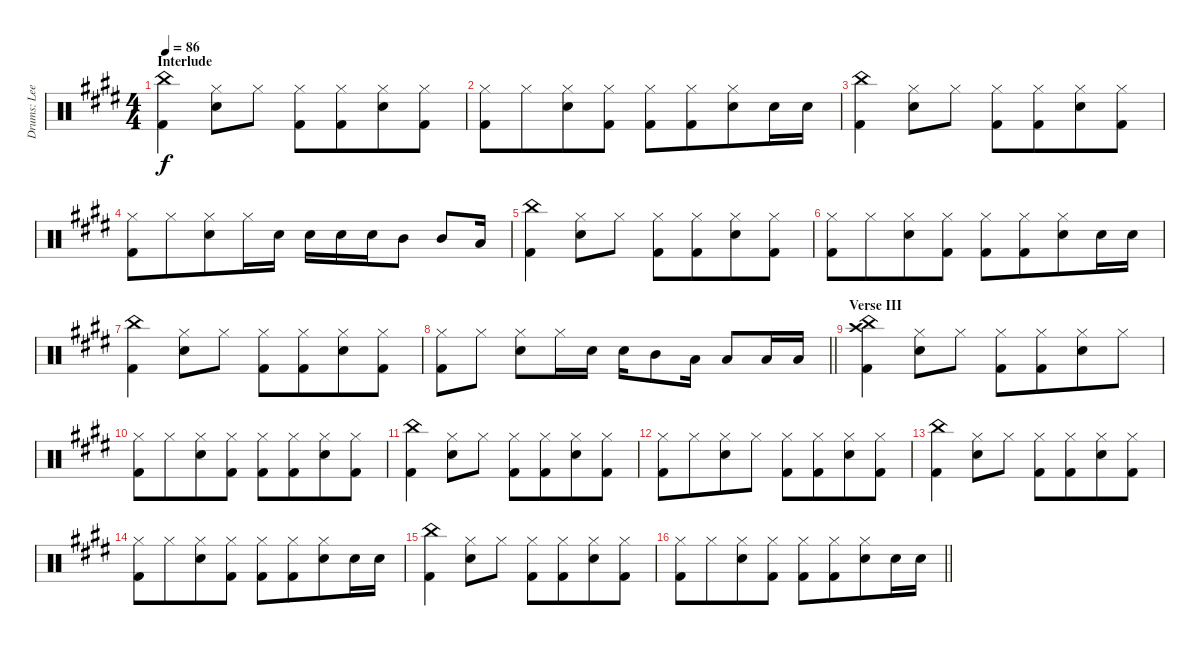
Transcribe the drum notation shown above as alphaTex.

\track ("Drums: Lee" "Drums: Lee") {instrument percussion}
\staff {score}
\articulation defaults
\ts (4 4)
\section ("" "Interlude")
\tempo 86
\clef neutral
\ks c#minor
("China (hit)" "Kick (hit) 2").4{dy f} ("Hi-Hat (closed)" "Snare (hit) 2").8 "Hi-Hat (closed)".8 ("Hi-Hat (closed)" "Kick (hit) 2").8 ("Hi-Hat (closed)" "Kick (hit) 2").8{beam merge} ("Hi-Hat (closed)" "Snare (hit) 2").8 ("Hi-Hat (closed)" "Kick (hit) 2").8 |
("Hi-Hat (closed)" "Kick (hit) 2").8 "Hi-Hat (closed)".8{beam merge} ("Hi-Hat (closed)" "Snare (hit) 2").8 ("Hi-Hat (closed)" "Kick (hit) 2").8 ("Hi-Hat (closed)" "Kick (hit) 2").8 ("Hi-Hat (closed)" "Kick (hit) 2").8{beam merge} ("Hi-Hat (closed)" "Snare (hit) 2").8 "Snare (hit) 2".16 "Snare (hit) 2".16 |
("China (hit)" "Kick (hit) 2").4 ("Hi-Hat (closed)" "Snare (hit) 2").8 "Hi-Hat (closed)".8 ("Hi-Hat (closed)" "Kick (hit) 2").8 ("Hi-Hat (closed)" "Kick (hit) 2").8{beam merge} ("Hi-Hat (closed)" "Snare (hit) 2").8 ("Hi-Hat (closed)" "Kick (hit) 2").8 |
("Hi-Hat (closed)" "Kick (hit) 2").8 "Hi-Hat (closed)".8{beam merge} ("Hi-Hat (closed)" "Snare (hit) 2").8 "Hi-Hat (closed)".16{beam merge} "Snare (hit) 2".16 "Snare (hit) 2".16 "Snare (hit) 2".16 "Snare (hit) 2".16 "Mid Tom (hit)".8 "Mid Tom (hit)".8 "Low Tom (hit)".16 |
("China (hit)" "Kick (hit) 2").4 ("Hi-Hat (closed)" "Snare (hit) 2").8 "Hi-Hat (closed)".8 ("Hi-Hat (closed)" "Kick (hit) 2").8 ("Hi-Hat (closed)" "Kick (hit) 2").8{beam merge} ("Hi-Hat (closed)" "Snare (hit) 2").8 ("Hi-Hat (closed)" "Kick (hit) 2").8 |
("Hi-Hat (closed)" "Kick (hit) 2").8 "Hi-Hat (closed)".8{beam merge} ("Hi-Hat (closed)" "Snare (hit) 2").8 ("Hi-Hat (closed)" "Kick (hit) 2").8 ("Hi-Hat (closed)" "Kick (hit) 2").8 ("Hi-Hat (closed)" "Kick (hit) 2").8{beam merge} ("Hi-Hat (closed)" "Snare (hit) 2").8 "Snare (hit) 2".16 "Snare (hit) 2".16 |
("China (hit)" "Kick (hit) 2").4 ("Hi-Hat (closed)" "Snare (hit) 2").8 "Hi-Hat (closed)".8 ("Hi-Hat (closed)" "Kick (hit) 2").8 ("Hi-Hat (closed)" "Kick (hit) 2").8{beam merge} ("Hi-Hat (closed)" "Snare (hit) 2").8 ("Hi-Hat (closed)" "Kick (hit) 2").8 |
\barLineRight lightlight
("Hi-Hat (closed)" "Kick (hit) 2").8 "Hi-Hat (closed)".8 ("Hi-Hat (closed)" "Snare (hit) 2").8 "Hi-Hat (closed)".16 "Snare (hit) 2".16 "Snare (hit) 2".16 "Mid Tom (hit)".8 "Low Tom (hit)".16 "Low Tom (hit)".8 "Low Tom (hit)".16 "Low Tom (hit)".16 |
\section ("" "Verse III")
("Crash high (hit)" "China (hit)" "Kick (hit) 2").4 ("Hi-Hat (closed)" "Snare (hit) 2").8 "Hi-Hat (closed)".8 ("Hi-Hat (closed)" "Kick (hit) 2").8 ("Hi-Hat (closed)" "Kick (hit) 2").8{beam merge} ("Hi-Hat (closed)" "Snare (hit) 2").8 "Hi-Hat (closed)".8 |
("Hi-Hat (closed)" "Kick (hit) 2").8 "Hi-Hat (closed)".8{beam merge} ("Hi-Hat (closed)" "Snare (hit) 2").8 ("Hi-Hat (closed)" "Kick (hit) 2").8 ("Hi-Hat (closed)" "Kick (hit) 2").8 ("Hi-Hat (closed)" "Kick (hit) 2").8{beam merge} ("Hi-Hat (closed)" "Snare (hit) 2").8 ("Hi-Hat (closed)" "Kick (hit) 2").8 |
("China (hit)" "Kick (hit) 2").4 ("Hi-Hat (closed)" "Snare (hit) 2").8 "Hi-Hat (closed)".8 ("Hi-Hat (closed)" "Kick (hit) 2").8 ("Hi-Hat (closed)" "Kick (hit) 2").8{beam merge} ("Hi-Hat (closed)" "Snare (hit) 2").8 ("Hi-Hat (closed)" "Kick (hit) 2").8 |
("Hi-Hat (closed)" "Kick (hit) 2").8 "Hi-Hat (closed)".8{beam merge} ("Hi-Hat (closed)" "Snare (hit) 2").8 "Hi-Hat (closed)".8 ("Hi-Hat (closed)" "Kick (hit) 2").8 ("Hi-Hat (closed)" "Kick (hit) 2").8{beam merge} ("Hi-Hat (closed)" "Snare (hit) 2").8 ("Hi-Hat (closed)" "Kick (hit) 2").8 |
("China (hit)" "Kick (hit) 2").4 ("Hi-Hat (closed)" "Snare (hit) 2").8 "Hi-Hat (closed)".8 ("Hi-Hat (closed)" "Kick (hit) 2").8 ("Hi-Hat (closed)" "Kick (hit) 2").8{beam merge} ("Hi-Hat (closed)" "Snare (hit) 2").8 ("Hi-Hat (closed)" "Kick (hit) 2").8 |
("Hi-Hat (closed)" "Kick (hit) 2").8 "Hi-Hat (closed)".8{beam merge} ("Hi-Hat (closed)" "Snare (hit) 2").8 ("Hi-Hat (closed)" "Kick (hit) 2").8 ("Hi-Hat (closed)" "Kick (hit) 2").8 ("Hi-Hat (closed)" "Kick (hit) 2").8{beam merge} ("Hi-Hat (closed)" "Snare (hit) 2").8 "Snare (hit) 2".16 "Snare (hit) 2".16 |
("China (hit)" "Kick (hit) 2").4 ("Hi-Hat (closed)" "Snare (hit) 2").8 "Hi-Hat (closed)".8 ("Hi-Hat (closed)" "Kick (hit) 2").8 ("Hi-Hat (closed)" "Kick (hit) 2").8{beam merge} ("Hi-Hat (closed)" "Snare (hit) 2").8 ("Hi-Hat (closed)" "Kick (hit) 2").8 |
\barLineRight lightlight
("Hi-Hat (closed)" "Kick (hit) 2").8 "Hi-Hat (closed)".8{beam merge} ("Hi-Hat (closed)" "Snare (hit) 2").8 ("Hi-Hat (closed)" "Kick (hit) 2").8 ("Hi-Hat (closed)" "Kick (hit) 2").8 ("Hi-Hat (closed)" "Kick (hit) 2").8{beam merge} ("Hi-Hat (closed)" "Snare (hit) 2").8 "Snare (hit) 2".16 "Snare (hit) 2".16
